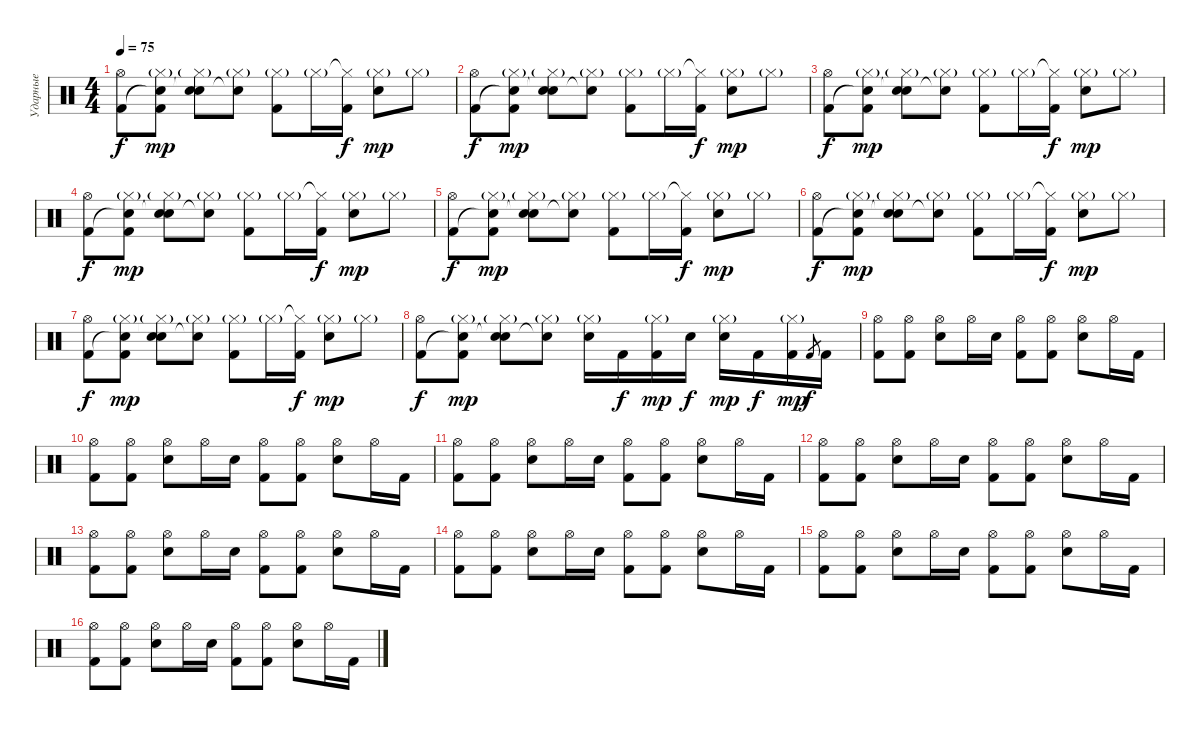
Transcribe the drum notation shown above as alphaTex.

\track ("Ударные" "Ударные") {instrument percussion}
\staff {score}
\articulation defaults
\ts (4 4)
\tempo 75
\clef neutral
\ks c
("Hi-Hat (open)" "Kick (hit) 2").8{dy f} ("Hi-Hat (closed)"{g} "Snare (hit)"{t} "Kick (hit) 2").8{dy mp} ("Hi-Hat (closed)"{g} "Snare (hit)"{t} "Electric Snare (hit)").8 ("Hi-Hat (closed)"{g} "Snare (hit)"{t}).8 ("Hi-Hat (closed)"{g} "Kick (hit) 2").8 "Hi-Hat (closed)"{g}.16 ("Hi-Hat (closed)"{t} "Kick (hit) 2").16{dy f} ("Hi-Hat (closed)"{g} "Electric Snare (hit)").8{dy mp} "Hi-Hat (closed)"{g}.8 |
("Hi-Hat (open)" "Kick (hit) 2").8{dy f} ("Hi-Hat (closed)"{g} "Snare (hit)"{t} "Kick (hit) 2").8{dy mp} ("Hi-Hat (closed)"{g} "Snare (hit)"{t} "Electric Snare (hit)").8 ("Hi-Hat (closed)"{g} "Snare (hit)"{t}).8 ("Hi-Hat (closed)"{g} "Kick (hit) 2").8 "Hi-Hat (closed)"{g}.16 ("Hi-Hat (closed)"{t} "Kick (hit) 2").16{dy f} ("Hi-Hat (closed)"{g} "Electric Snare (hit)").8{dy mp} "Hi-Hat (closed)"{g}.8 |
("Hi-Hat (open)" "Kick (hit) 2").8{dy f} ("Hi-Hat (closed)"{g} "Snare (hit)"{t} "Kick (hit) 2").8{dy mp} ("Hi-Hat (closed)"{g} "Snare (hit)"{t} "Electric Snare (hit)").8 ("Hi-Hat (closed)"{g} "Snare (hit)"{t}).8 ("Hi-Hat (closed)"{g} "Kick (hit) 2").8 "Hi-Hat (closed)"{g}.16 ("Hi-Hat (closed)"{t} "Kick (hit) 2").16{dy f} ("Hi-Hat (closed)"{g} "Electric Snare (hit)").8{dy mp} "Hi-Hat (closed)"{g}.8 |
("Hi-Hat (open)" "Kick (hit) 2").8{dy f} ("Hi-Hat (closed)"{g} "Snare (hit)"{t} "Kick (hit) 2").8{dy mp} ("Hi-Hat (closed)"{g} "Snare (hit)"{t} "Electric Snare (hit)").8 ("Hi-Hat (closed)"{g} "Snare (hit)"{t}).8 ("Hi-Hat (closed)"{g} "Kick (hit) 2").8 "Hi-Hat (closed)"{g}.16 ("Hi-Hat (closed)"{t} "Kick (hit) 2").16{dy f} ("Hi-Hat (closed)"{g} "Electric Snare (hit)").8{dy mp} "Hi-Hat (closed)"{g}.8 |
("Hi-Hat (open)" "Kick (hit) 2").8{dy f} ("Hi-Hat (closed)"{g} "Snare (hit)"{t} "Kick (hit) 2").8{dy mp} ("Hi-Hat (closed)"{g} "Snare (hit)"{t} "Electric Snare (hit)").8 ("Hi-Hat (closed)"{g} "Snare (hit)"{t}).8 ("Hi-Hat (closed)"{g} "Kick (hit) 2").8 "Hi-Hat (closed)"{g}.16 ("Hi-Hat (closed)"{t} "Kick (hit) 2").16{dy f} ("Hi-Hat (closed)"{g} "Electric Snare (hit)").8{dy mp} "Hi-Hat (closed)"{g}.8 |
("Hi-Hat (open)" "Kick (hit) 2").8{dy f} ("Hi-Hat (closed)"{g} "Snare (hit)"{t} "Kick (hit) 2").8{dy mp} ("Hi-Hat (closed)"{g} "Snare (hit)"{t} "Electric Snare (hit)").8 ("Hi-Hat (closed)"{g} "Snare (hit)"{t}).8 ("Hi-Hat (closed)"{g} "Kick (hit) 2").8 "Hi-Hat (closed)"{g}.16 ("Hi-Hat (closed)"{t} "Kick (hit) 2").16{dy f} ("Hi-Hat (closed)"{g} "Electric Snare (hit)").8{dy mp} "Hi-Hat (closed)"{g}.8 |
("Hi-Hat (open)" "Kick (hit) 2").8{dy f} ("Hi-Hat (closed)"{g} "Snare (hit)"{t} "Kick (hit) 2").8{dy mp} ("Hi-Hat (closed)"{g} "Snare (hit)"{t} "Electric Snare (hit)").8 ("Hi-Hat (closed)"{g} "Snare (hit)"{t}).8 ("Hi-Hat (closed)"{g} "Kick (hit) 2").8 "Hi-Hat (closed)"{g}.16 ("Hi-Hat (closed)"{t} "Kick (hit) 2").16{dy f} ("Hi-Hat (closed)"{g} "Electric Snare (hit)").8{dy mp} "Hi-Hat (closed)"{g}.8 |
("Hi-Hat (open)" "Kick (hit) 2").8{dy f} ("Hi-Hat (closed)"{g} "Snare (hit)"{t} "Kick (hit) 2").8{dy mp} ("Hi-Hat (closed)"{g} "Snare (hit)"{t} "Electric Snare (hit)").8 ("Hi-Hat (closed)"{g} "Snare (hit)"{t}).8 ("Hi-Hat (closed)"{g} "Electric Snare (hit)").16 "Kick (hit) 2".16{dy f} ("Hi-Hat (closed)"{g} "Kick (hit) 2").16{dy mp} "Electric Snare (hit)".16{dy f} ("Hi-Hat (closed)"{g} "Electric Snare (hit)").16{dy mp} "Kick (hit) 2".16{dy f} ("Hi-Hat (closed)"{g} "Kick (hit) 2").16{dy mp} "Kick (hit) 2".8{gr dy f} "Kick (hit) 2".16 |
("Hi-Hat (open)" "Kick (hit) 2").8 ("Hi-Hat (open)" "Kick (hit) 2").8 ("Hi-Hat (open)" "Electric Snare (hit)").8 "Hi-Hat (open)".16 "Electric Snare (hit)".16 ("Hi-Hat (open)" "Kick (hit) 2").8 ("Hi-Hat (open)" "Kick (hit) 2").8 ("Hi-Hat (open)" "Electric Snare (hit)").8 "Hi-Hat (open)".16 "Kick (hit) 2".16 |
("Hi-Hat (open)" "Kick (hit) 2").8 ("Hi-Hat (open)" "Kick (hit) 2").8 ("Hi-Hat (open)" "Electric Snare (hit)").8 "Hi-Hat (open)".16 "Electric Snare (hit)".16 ("Hi-Hat (open)" "Kick (hit) 2").8 ("Hi-Hat (open)" "Kick (hit) 2").8 ("Hi-Hat (open)" "Electric Snare (hit)").8 "Hi-Hat (open)".16 "Kick (hit) 2".16 |
("Hi-Hat (open)" "Kick (hit) 2").8 ("Hi-Hat (open)" "Kick (hit) 2").8 ("Hi-Hat (open)" "Electric Snare (hit)").8 "Hi-Hat (open)".16 "Electric Snare (hit)".16 ("Hi-Hat (open)" "Kick (hit) 2").8 ("Hi-Hat (open)" "Kick (hit) 2").8 ("Hi-Hat (open)" "Electric Snare (hit)").8 "Hi-Hat (open)".16 "Kick (hit) 2".16 |
("Hi-Hat (open)" "Kick (hit) 2").8 ("Hi-Hat (open)" "Kick (hit) 2").8 ("Hi-Hat (open)" "Electric Snare (hit)").8 "Hi-Hat (open)".16 "Electric Snare (hit)".16 ("Hi-Hat (open)" "Kick (hit) 2").8 ("Hi-Hat (open)" "Kick (hit) 2").8 ("Hi-Hat (open)" "Electric Snare (hit)").8 "Hi-Hat (open)".16 "Kick (hit) 2".16 |
("Hi-Hat (open)" "Kick (hit) 2").8 ("Hi-Hat (open)" "Kick (hit) 2").8 ("Hi-Hat (open)" "Electric Snare (hit)").8 "Hi-Hat (open)".16 "Electric Snare (hit)".16 ("Hi-Hat (open)" "Kick (hit) 2").8 ("Hi-Hat (open)" "Kick (hit) 2").8 ("Hi-Hat (open)" "Electric Snare (hit)").8 "Hi-Hat (open)".16 "Kick (hit) 2".16 |
("Hi-Hat (open)" "Kick (hit) 2").8 ("Hi-Hat (open)" "Kick (hit) 2").8 ("Hi-Hat (open)" "Electric Snare (hit)").8 "Hi-Hat (open)".16 "Electric Snare (hit)".16 ("Hi-Hat (open)" "Kick (hit) 2").8 ("Hi-Hat (open)" "Kick (hit) 2").8 ("Hi-Hat (open)" "Electric Snare (hit)").8 "Hi-Hat (open)".16 "Kick (hit) 2".16 |
("Hi-Hat (open)" "Kick (hit) 2").8 ("Hi-Hat (open)" "Kick (hit) 2").8 ("Hi-Hat (open)" "Electric Snare (hit)").8 "Hi-Hat (open)".16 "Electric Snare (hit)".16 ("Hi-Hat (open)" "Kick (hit) 2").8 ("Hi-Hat (open)" "Kick (hit) 2").8 ("Hi-Hat (open)" "Electric Snare (hit)").8 "Hi-Hat (open)".16 "Kick (hit) 2".16 |
("Hi-Hat (open)" "Kick (hit) 2").8 ("Hi-Hat (open)" "Kick (hit) 2").8 ("Hi-Hat (open)" "Electric Snare (hit)").8 "Hi-Hat (open)".16 "Electric Snare (hit)".16 ("Hi-Hat (open)" "Kick (hit) 2").8 ("Hi-Hat (open)" "Kick (hit) 2").8 ("Hi-Hat (open)" "Electric Snare (hit)").8 "Hi-Hat (open)".16 "Kick (hit) 2".16
